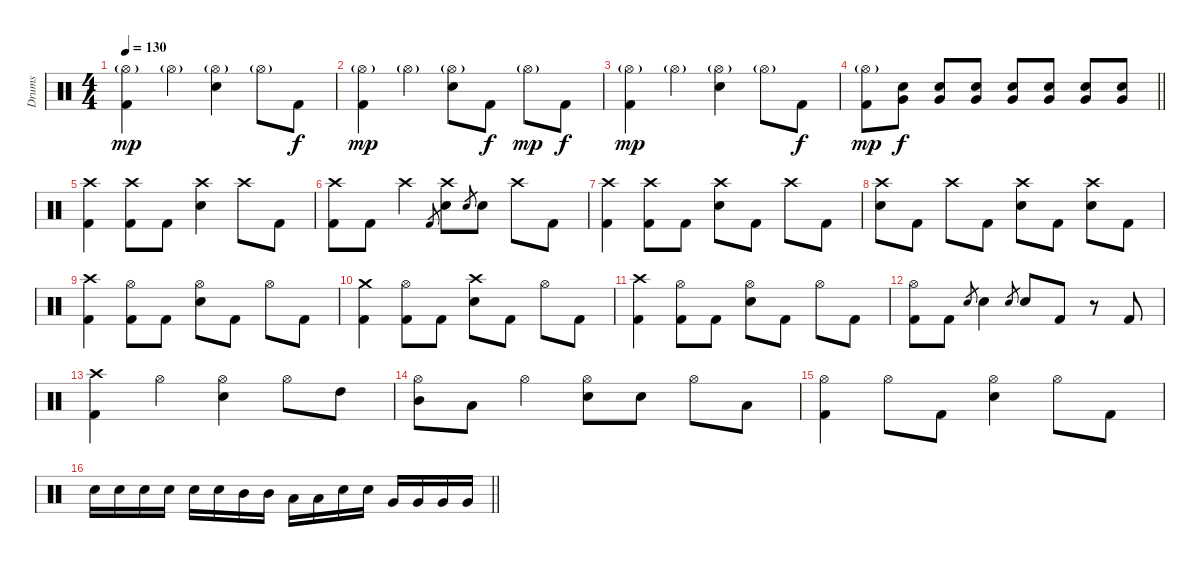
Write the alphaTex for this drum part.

\track ("Drums" "Drums") {instrument percussion}
\staff {score}
\articulation defaults
\ts (4 4)
\tempo 130
\clef neutral
\ks c
("Hi-Hat (open)"{g} "Kick (hit) 2").4{dy mp} "Hi-Hat (open)"{g}.4 ("Hi-Hat (open)"{g} "Electric Snare (hit)").4 "Hi-Hat (open)"{g}.8 "Kick (hit) 2".8{dy f} |
("Hi-Hat (open)"{g} "Kick (hit) 2").4{dy mp} "Hi-Hat (open)"{g}.4 ("Hi-Hat (open)"{g} "Electric Snare (hit)").8 "Kick (hit) 2".8{dy f} "Hi-Hat (open)"{g}.8{dy mp} "Kick (hit) 2".8{dy f} |
("Hi-Hat (open)"{g} "Kick (hit) 2").4{dy mp} "Hi-Hat (open)"{g}.4 ("Hi-Hat (open)"{g} "Electric Snare (hit)").4 "Hi-Hat (open)"{g}.8 "Kick (hit) 2".8{dy f} |
\barLineRight lightlight
("Hi-Hat (open)"{g} "Kick (hit) 2").8{dy mp} ("Electric Snare (hit)" "Very Low Tom (hit)").8{dy f} ("Electric Snare (hit)" "Very Low Tom (hit)").8 ("Electric Snare (hit)" "Very Low Tom (hit)").8 ("Electric Snare (hit)" "Very Low Tom (hit)").8 ("Electric Snare (hit)" "Very Low Tom (hit)").8 ("Electric Snare (hit)" "Very Low Tom (hit)").8 ("Electric Snare (hit)" "Very Low Tom (hit)").8 |
("Crash high (hit)" "Kick (hit) 2").4 ("Crash high (hit)" "Kick (hit) 2").8 "Kick (hit) 2".8 ("Crash high (hit)" "Electric Snare (hit)").4 "Crash high (hit)".8 "Kick (hit) 2".8 |
("Crash high (hit)" "Kick (hit) 2").8 "Kick (hit) 2".8 "Crash high (hit)".4 "Kick (hit) 2".8{gr} ("Crash high (hit)" "Electric Snare (hit)").8 "Electric Snare (hit)".8{gr} "Electric Snare (hit)".8 "Crash high (hit)".8 "Kick (hit) 2".8 |
("Crash high (hit)" "Kick (hit) 2").4 ("Crash high (hit)" "Kick (hit) 2").8 "Kick (hit) 2".8 ("Crash high (hit)" "Electric Snare (hit)").8 "Kick (hit) 2".8 "Crash high (hit)".8 "Kick (hit) 2".8 |
("Crash high (hit)" "Electric Snare (hit)").8 "Kick (hit) 2".8 "Crash high (hit)".8 "Kick (hit) 2".8 ("Crash high (hit)" "Electric Snare (hit)").8 "Kick (hit) 2".8 ("Crash high (hit)" "Electric Snare (hit)").8 "Kick (hit) 2".8 |
("Crash high (hit)" "Kick (hit) 2").4 ("Hi-Hat (open)" "Kick (hit) 2").8 "Kick (hit) 2".8 ("Hi-Hat (open)" "Electric Snare (hit)").8 "Kick (hit) 2".8 "Hi-Hat (open)".8 "Kick (hit) 2".8 |
("Crash medium (hit)" "Kick (hit) 2").4 ("Hi-Hat (open)" "Kick (hit) 2").8 "Kick (hit) 2".8 ("Crash high (hit)" "Electric Snare (hit)").8 "Kick (hit) 2".8 "Hi-Hat (open)".8 "Kick (hit) 2".8 |
("Crash high (hit)" "Kick (hit) 2").4 ("Hi-Hat (open)" "Kick (hit) 2").8 "Kick (hit) 2".8 ("Hi-Hat (open)" "Electric Snare (hit)").8 "Kick (hit) 2".8 "Hi-Hat (open)".8 "Kick (hit) 2".8 |
("Hi-Hat (open)" "Kick (hit) 2").8 "Kick (hit) 2".8 "Electric Snare (hit)".8{gr} "Electric Snare (hit)".4 "Electric Snare (hit)".8{gr} "Electric Snare (hit)".8 "Kick (hit) 2".8 r.8 "Kick (hit) 2".8 |
("Crash high (hit)" "Kick (hit) 2").4 "Hi-Hat (open)".4 ("Hi-Hat (open)" "Electric Snare (hit)").4 "Hi-Hat (open)".8 "High Tom (hit)".8 |
("Hi-Hat (open)" "Mid Tom (hit)").8 "Low Tom (hit)".8 "Hi-Hat (open)".4 ("Hi-Hat (open)" "Electric Snare (hit)").8 "Electric Snare (hit)".8 "Hi-Hat (open)".8 "Low Tom (hit)".8 |
("Hi-Hat (open)" "Kick (hit) 2").4 "Hi-Hat (open)".8 "Kick (hit) 2".8 ("Hi-Hat (open)" "Electric Snare (hit)").4 "Hi-Hat (open)".8 "Kick (hit) 2".8 |
\barLineRight lightlight "Electric Snare (hit)".16 "Electric Snare (hit)".16 "Electric Snare (hit)".16 "Electric Snare (hit)".16 "Electric Snare (hit)".16 "Electric Snare (hit)".16 "Mid Tom (hit)".16 "Mid Tom (hit)".16 "Low Tom (hit)".16 "Low Tom (hit)".16 "Electric Snare (hit)".16 "Electric Snare (hit)".16 "Very Low Tom (hit)".16 "Very Low Tom (hit)".16 "Very Low Tom (hit)".16 "Very Low Tom (hit)".16
